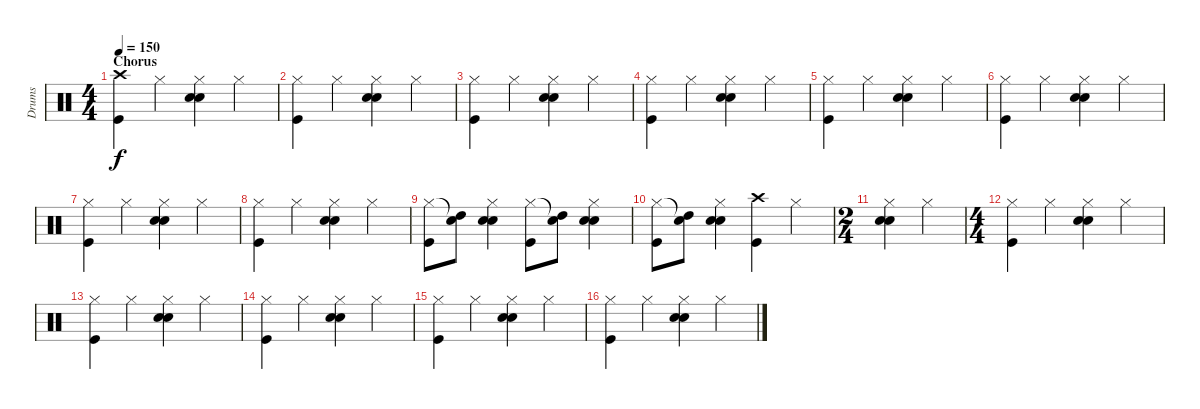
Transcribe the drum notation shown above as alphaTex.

\track ("Drums" "Drums") {instrument percussion}
\staff {score}
\articulation defaults
\ts (4 4)
\section ("" "Chorus")
\tempo 150
\clef neutral
\ks c
("Crash high (hit)" "Kick (hit)").4{dy f} "Hi-Hat (closed)".4 ("Hi-Hat (closed)" "Hand Clap (hit)" "Snare (hit) 2").4 "Hi-Hat (closed)".4 |
("Hi-Hat (closed)" "Kick (hit)").4 "Hi-Hat (closed)".4 ("Hi-Hat (closed)" "Hand Clap (hit)" "Snare (hit) 2").4 "Hi-Hat (closed)".4 |
("Hi-Hat (closed)" "Kick (hit)").4 "Hi-Hat (closed)".4 ("Hi-Hat (closed)" "Hand Clap (hit)" "Snare (hit) 2").4 "Hi-Hat (closed)".4 |
("Hi-Hat (closed)" "Kick (hit)").4 "Hi-Hat (closed)".4 ("Hi-Hat (closed)" "Hand Clap (hit)" "Snare (hit) 2").4 "Hi-Hat (closed)".4 |
("Hi-Hat (closed)" "Kick (hit)").4 "Hi-Hat (closed)".4 ("Hi-Hat (closed)" "Hand Clap (hit)" "Snare (hit) 2").4 "Hi-Hat (closed)".4 |
("Hi-Hat (closed)" "Kick (hit)").4 "Hi-Hat (closed)".4 ("Hi-Hat (closed)" "Hand Clap (hit)" "Snare (hit) 2").4 "Hi-Hat (closed)".4 |
("Hi-Hat (closed)" "Kick (hit)").4 "Hi-Hat (closed)".4 ("Hi-Hat (closed)" "Hand Clap (hit)" "Snare (hit) 2").4 "Hi-Hat (closed)".4 |
("Hi-Hat (closed)" "Kick (hit)").4 "Hi-Hat (closed)".4 ("Hi-Hat (closed)" "Hand Clap (hit)" "Snare (hit) 2").4 "Hi-Hat (closed)".4 |
("Hi-Hat (closed)" "Kick (hit)").8 ("Snare (hit)"{t} "High Tom (hit)").8 ("Hi-Hat (closed)" "Hand Clap (hit)" "Snare (hit) 2").4 ("Hi-Hat (closed)" "Kick (hit)").8 ("Snare (hit)"{t} "High Tom (hit)").8 ("Hi-Hat (closed)" "Hand Clap (hit)" "Snare (hit) 2").4 |
("Hi-Hat (closed)" "Kick (hit)").8 ("Snare (hit)"{t} "High Tom (hit)").8 ("Hi-Hat (closed)" "Hand Clap (hit)" "Snare (hit) 2").4 ("Crash high (hit)" "Kick (hit)").4 "Hi-Hat (closed)".4 |
\ts (2 4)
("Hi-Hat (closed)" "Hand Clap (hit)" "Snare (hit) 2").4 "Hi-Hat (closed)".4 |
\ts (4 4)
("Hi-Hat (closed)" "Kick (hit)").4 "Hi-Hat (closed)".4 ("Hi-Hat (closed)" "Hand Clap (hit)" "Snare (hit) 2").4 "Hi-Hat (closed)".4 |
("Hi-Hat (closed)" "Kick (hit)").4 "Hi-Hat (closed)".4 ("Hi-Hat (closed)" "Hand Clap (hit)" "Snare (hit) 2").4 "Hi-Hat (closed)".4 |
("Hi-Hat (closed)" "Kick (hit)").4 "Hi-Hat (closed)".4 ("Hi-Hat (closed)" "Hand Clap (hit)" "Snare (hit) 2").4 "Hi-Hat (closed)".4 |
("Hi-Hat (closed)" "Kick (hit)").4 "Hi-Hat (closed)".4 ("Hi-Hat (closed)" "Hand Clap (hit)" "Snare (hit) 2").4 "Hi-Hat (closed)".4 |
("Hi-Hat (closed)" "Kick (hit)").4 "Hi-Hat (closed)".4 ("Hi-Hat (closed)" "Hand Clap (hit)" "Snare (hit) 2").4 "Hi-Hat (closed)".4
